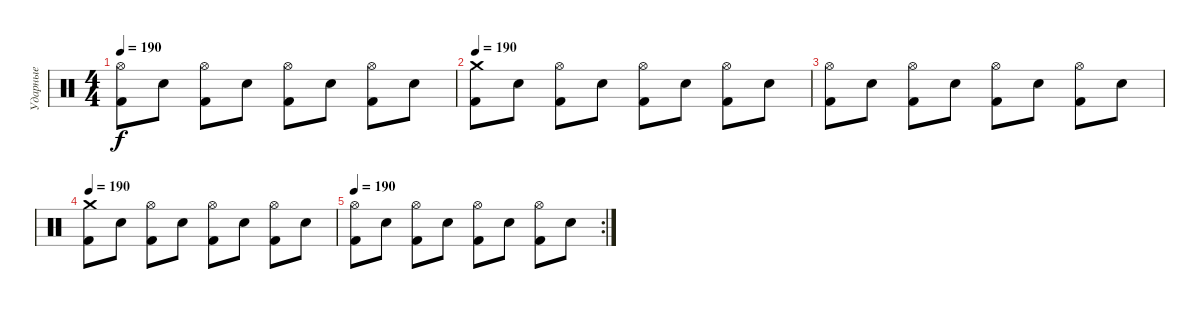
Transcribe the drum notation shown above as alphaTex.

\track ("Ударные" "Ударные") {instrument percussion}
\staff {score}
\articulation defaults
\ts (4 4)
\tempo 190
\clef neutral
\ks c
("Hi-Hat (open)" "Kick (hit) 2").8{dy f} "Electric Snare (hit)".8 ("Hi-Hat (open)" "Kick (hit) 2").8 "Electric Snare (hit)".8 ("Hi-Hat (open)" "Kick (hit) 2").8 "Electric Snare (hit)".8 ("Hi-Hat (open)" "Kick (hit) 2").8 "Electric Snare (hit)".8 |
\tempo 190
("Crash medium (hit)" "Kick (hit) 2").8 "Electric Snare (hit)".8 ("Hi-Hat (open)" "Kick (hit) 2").8 "Electric Snare (hit)".8 ("Hi-Hat (open)" "Kick (hit) 2").8 "Electric Snare (hit)".8 ("Hi-Hat (open)" "Kick (hit) 2").8 "Electric Snare (hit)".8 |
("Hi-Hat (open)" "Kick (hit) 2").8 "Electric Snare (hit)".8 ("Hi-Hat (open)" "Kick (hit) 2").8 "Electric Snare (hit)".8 ("Hi-Hat (open)" "Kick (hit) 2").8 "Electric Snare (hit)".8 ("Hi-Hat (open)" "Kick (hit) 2").8 "Electric Snare (hit)".8 |
\tempo 190
("Crash medium (hit)" "Kick (hit) 2").8 "Electric Snare (hit)".8 ("Hi-Hat (open)" "Kick (hit) 2").8 "Electric Snare (hit)".8 ("Hi-Hat (open)" "Kick (hit) 2").8 "Electric Snare (hit)".8 ("Hi-Hat (open)" "Kick (hit) 2").8 "Electric Snare (hit)".8 |
\rc 2
\tempo 190
("Hi-Hat (open)" "Kick (hit) 2").8 "Electric Snare (hit)".8 ("Hi-Hat (open)" "Kick (hit) 2").8 "Electric Snare (hit)".8 ("Hi-Hat (open)" "Kick (hit) 2").8 "Electric Snare (hit)".8 ("Hi-Hat (open)" "Kick (hit) 2").8 "Electric Snare (hit)".8
